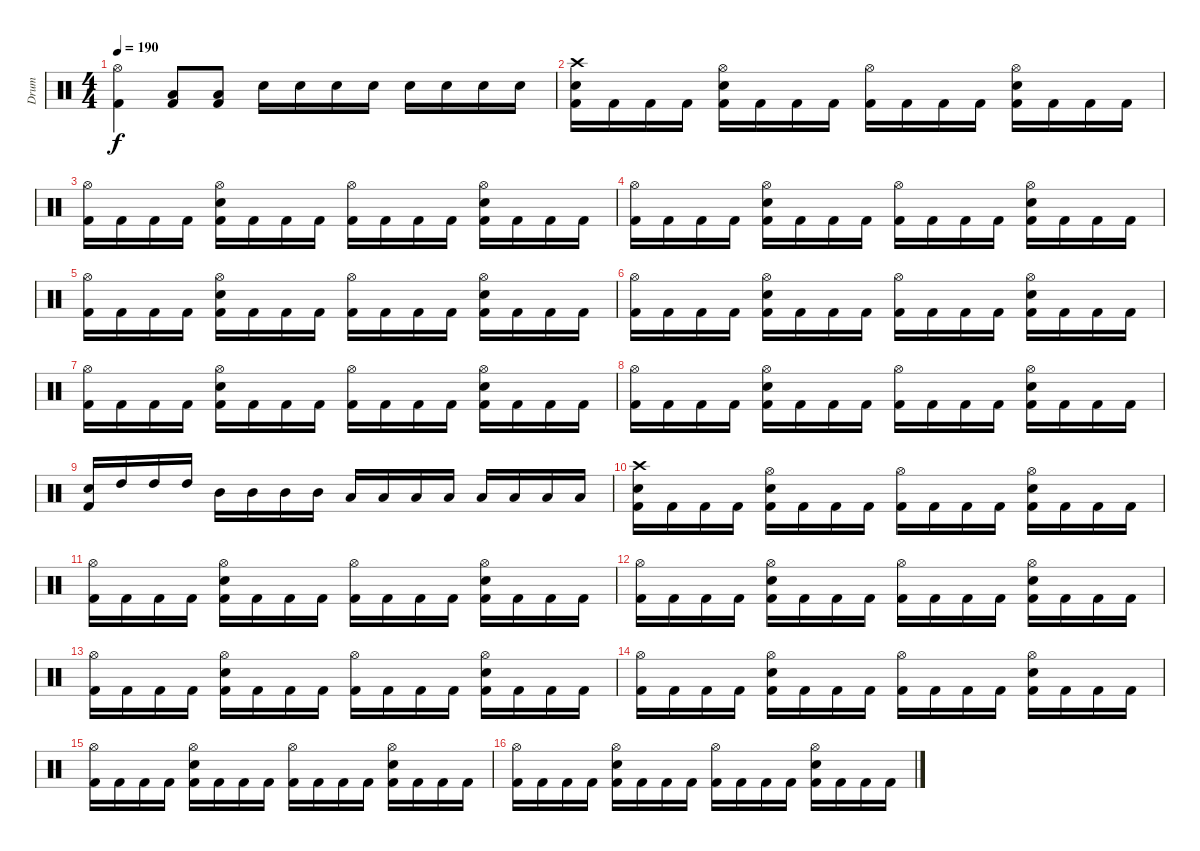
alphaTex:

\track ("Drum" "Drum") {instrument percussion}
\staff {score}
\articulation defaults
\ts (4 4)
\tempo 190
\clef neutral
\ks c
("Hi-Hat (open)" "Kick (hit) 2").4{dy f} ("Low Floor Tom (hit)" "Kick (hit) 2").8 ("Low Floor Tom (hit)" "Kick (hit) 2").8 "Snare (hit) 2".16 "Snare (hit) 2".16 "Snare (hit) 2".16 "Snare (hit) 2".16 "Snare (hit) 2".16 "Snare (hit) 2".16 "Snare (hit) 2".16 "Snare (hit) 2".16 |
("Crash high (hit)" "Snare (hit) 2" "Kick (hit) 2").16 "Kick (hit) 2".16 "Kick (hit) 2".16 "Kick (hit) 2".16 ("Hi-Hat (open)" "Snare (hit) 2" "Kick (hit) 2").16 "Kick (hit) 2".16 "Kick (hit) 2".16 "Kick (hit) 2".16 ("Hi-Hat (open)" "Kick (hit) 2").16 "Kick (hit) 2".16 "Kick (hit) 2".16 "Kick (hit) 2".16 ("Hi-Hat (open)" "Snare (hit) 2" "Kick (hit) 2").16 "Kick (hit) 2".16 "Kick (hit) 2".16 "Kick (hit) 2".16 |
("Hi-Hat (open)" "Kick (hit) 2").16 "Kick (hit) 2".16 "Kick (hit) 2".16 "Kick (hit) 2".16 ("Hi-Hat (open)" "Snare (hit) 2" "Kick (hit) 2").16 "Kick (hit) 2".16 "Kick (hit) 2".16 "Kick (hit) 2".16 ("Hi-Hat (open)" "Kick (hit) 2").16 "Kick (hit) 2".16 "Kick (hit) 2".16 "Kick (hit) 2".16 ("Hi-Hat (open)" "Snare (hit) 2" "Kick (hit) 2").16 "Kick (hit) 2".16 "Kick (hit) 2".16 "Kick (hit) 2".16 |
("Hi-Hat (open)" "Kick (hit) 2").16 "Kick (hit) 2".16 "Kick (hit) 2".16 "Kick (hit) 2".16 ("Hi-Hat (open)" "Snare (hit) 2" "Kick (hit) 2").16 "Kick (hit) 2".16 "Kick (hit) 2".16 "Kick (hit) 2".16 ("Hi-Hat (open)" "Kick (hit) 2").16 "Kick (hit) 2".16 "Kick (hit) 2".16 "Kick (hit) 2".16 ("Hi-Hat (open)" "Snare (hit) 2" "Kick (hit) 2").16 "Kick (hit) 2".16 "Kick (hit) 2".16 "Kick (hit) 2".16 |
("Hi-Hat (open)" "Kick (hit) 2").16 "Kick (hit) 2".16 "Kick (hit) 2".16 "Kick (hit) 2".16 ("Hi-Hat (open)" "Snare (hit) 2" "Kick (hit) 2").16 "Kick (hit) 2".16 "Kick (hit) 2".16 "Kick (hit) 2".16 ("Hi-Hat (open)" "Kick (hit) 2").16 "Kick (hit) 2".16 "Kick (hit) 2".16 "Kick (hit) 2".16 ("Hi-Hat (open)" "Snare (hit) 2" "Kick (hit) 2").16 "Kick (hit) 2".16 "Kick (hit) 2".16 "Kick (hit) 2".16 |
("Hi-Hat (open)" "Kick (hit) 2").16 "Kick (hit) 2".16 "Kick (hit) 2".16 "Kick (hit) 2".16 ("Hi-Hat (open)" "Snare (hit) 2" "Kick (hit) 2").16 "Kick (hit) 2".16 "Kick (hit) 2".16 "Kick (hit) 2".16 ("Hi-Hat (open)" "Kick (hit) 2").16 "Kick (hit) 2".16 "Kick (hit) 2".16 "Kick (hit) 2".16 ("Hi-Hat (open)" "Snare (hit) 2" "Kick (hit) 2").16 "Kick (hit) 2".16 "Kick (hit) 2".16 "Kick (hit) 2".16 |
("Hi-Hat (open)" "Kick (hit) 2").16 "Kick (hit) 2".16 "Kick (hit) 2".16 "Kick (hit) 2".16 ("Hi-Hat (open)" "Snare (hit) 2" "Kick (hit) 2").16 "Kick (hit) 2".16 "Kick (hit) 2".16 "Kick (hit) 2".16 ("Hi-Hat (open)" "Kick (hit) 2").16 "Kick (hit) 2".16 "Kick (hit) 2".16 "Kick (hit) 2".16 ("Hi-Hat (open)" "Snare (hit) 2" "Kick (hit) 2").16 "Kick (hit) 2".16 "Kick (hit) 2".16 "Kick (hit) 2".16 |
("Hi-Hat (open)" "Kick (hit) 2").16 "Kick (hit) 2".16 "Kick (hit) 2".16 "Kick (hit) 2".16 ("Hi-Hat (open)" "Snare (hit) 2" "Kick (hit) 2").16 "Kick (hit) 2".16 "Kick (hit) 2".16 "Kick (hit) 2".16 ("Hi-Hat (open)" "Kick (hit) 2").16 "Kick (hit) 2".16 "Kick (hit) 2".16 "Kick (hit) 2".16 ("Hi-Hat (open)" "Snare (hit) 2" "Kick (hit) 2").16 "Kick (hit) 2".16 "Kick (hit) 2".16 "Kick (hit) 2".16 |
("Snare (hit) 2" "Kick (hit) 2").16 "High Tom (hit)".16 "High Tom (hit)".16 "High Tom (hit)".16 "Mid Tom (hit)".16 "Mid Tom (hit)".16 "Mid Tom (hit)".16 "Mid Tom (hit)".16 "Low Tom (hit)".16 "Low Tom (hit)".16 "Low Tom (hit)".16 "Low Tom (hit)".16 "Low Floor Tom (hit)".16 "Low Floor Tom (hit)".16 "Low Floor Tom (hit)".16 "Low Floor Tom (hit)".16 |
("Crash high (hit)" "Snare (hit) 2" "Kick (hit) 2").16 "Kick (hit) 2".16 "Kick (hit) 2".16 "Kick (hit) 2".16 ("Hi-Hat (open)" "Snare (hit) 2" "Kick (hit) 2").16 "Kick (hit) 2".16 "Kick (hit) 2".16 "Kick (hit) 2".16 ("Hi-Hat (open)" "Kick (hit) 2").16 "Kick (hit) 2".16 "Kick (hit) 2".16 "Kick (hit) 2".16 ("Hi-Hat (open)" "Snare (hit) 2" "Kick (hit) 2").16 "Kick (hit) 2".16 "Kick (hit) 2".16 "Kick (hit) 2".16 |
("Hi-Hat (open)" "Kick (hit) 2").16 "Kick (hit) 2".16 "Kick (hit) 2".16 "Kick (hit) 2".16 ("Hi-Hat (open)" "Snare (hit) 2" "Kick (hit) 2").16 "Kick (hit) 2".16 "Kick (hit) 2".16 "Kick (hit) 2".16 ("Hi-Hat (open)" "Kick (hit) 2").16 "Kick (hit) 2".16 "Kick (hit) 2".16 "Kick (hit) 2".16 ("Hi-Hat (open)" "Snare (hit) 2" "Kick (hit) 2").16 "Kick (hit) 2".16 "Kick (hit) 2".16 "Kick (hit) 2".16 |
("Hi-Hat (open)" "Kick (hit) 2").16 "Kick (hit) 2".16 "Kick (hit) 2".16 "Kick (hit) 2".16 ("Hi-Hat (open)" "Snare (hit) 2" "Kick (hit) 2").16 "Kick (hit) 2".16 "Kick (hit) 2".16 "Kick (hit) 2".16 ("Hi-Hat (open)" "Kick (hit) 2").16 "Kick (hit) 2".16 "Kick (hit) 2".16 "Kick (hit) 2".16 ("Hi-Hat (open)" "Snare (hit) 2" "Kick (hit) 2").16 "Kick (hit) 2".16 "Kick (hit) 2".16 "Kick (hit) 2".16 |
("Hi-Hat (open)" "Kick (hit) 2").16 "Kick (hit) 2".16 "Kick (hit) 2".16 "Kick (hit) 2".16 ("Hi-Hat (open)" "Snare (hit) 2" "Kick (hit) 2").16 "Kick (hit) 2".16 "Kick (hit) 2".16 "Kick (hit) 2".16 ("Hi-Hat (open)" "Kick (hit) 2").16 "Kick (hit) 2".16 "Kick (hit) 2".16 "Kick (hit) 2".16 ("Hi-Hat (open)" "Snare (hit) 2" "Kick (hit) 2").16 "Kick (hit) 2".16 "Kick (hit) 2".16 "Kick (hit) 2".16 |
("Hi-Hat (open)" "Kick (hit) 2").16 "Kick (hit) 2".16 "Kick (hit) 2".16 "Kick (hit) 2".16 ("Hi-Hat (open)" "Snare (hit) 2" "Kick (hit) 2").16 "Kick (hit) 2".16 "Kick (hit) 2".16 "Kick (hit) 2".16 ("Hi-Hat (open)" "Kick (hit) 2").16 "Kick (hit) 2".16 "Kick (hit) 2".16 "Kick (hit) 2".16 ("Hi-Hat (open)" "Snare (hit) 2" "Kick (hit) 2").16 "Kick (hit) 2".16 "Kick (hit) 2".16 "Kick (hit) 2".16 |
("Hi-Hat (open)" "Kick (hit) 2").16 "Kick (hit) 2".16 "Kick (hit) 2".16 "Kick (hit) 2".16 ("Hi-Hat (open)" "Snare (hit) 2" "Kick (hit) 2").16 "Kick (hit) 2".16 "Kick (hit) 2".16 "Kick (hit) 2".16 ("Hi-Hat (open)" "Kick (hit) 2").16 "Kick (hit) 2".16 "Kick (hit) 2".16 "Kick (hit) 2".16 ("Hi-Hat (open)" "Snare (hit) 2" "Kick (hit) 2").16 "Kick (hit) 2".16 "Kick (hit) 2".16 "Kick (hit) 2".16 |
("Hi-Hat (open)" "Kick (hit) 2").16 "Kick (hit) 2".16 "Kick (hit) 2".16 "Kick (hit) 2".16 ("Hi-Hat (open)" "Snare (hit) 2" "Kick (hit) 2").16 "Kick (hit) 2".16 "Kick (hit) 2".16 "Kick (hit) 2".16 ("Hi-Hat (open)" "Kick (hit) 2").16 "Kick (hit) 2".16 "Kick (hit) 2".16 "Kick (hit) 2".16 ("Hi-Hat (open)" "Snare (hit) 2" "Kick (hit) 2").16 "Kick (hit) 2".16 "Kick (hit) 2".16 "Kick (hit) 2".16
